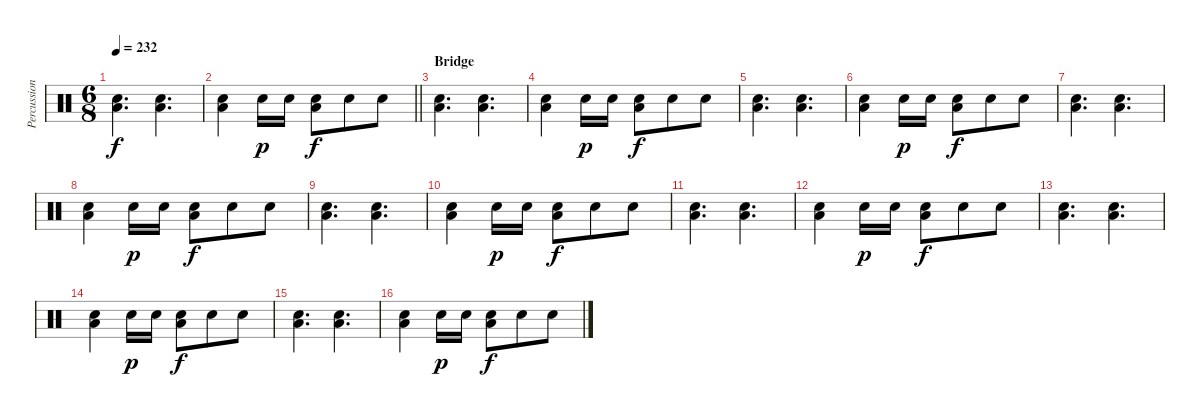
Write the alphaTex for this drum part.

\track ("Percussion" "Percussion") {instrument percussion}
\staff {score}
\articulation defaults
\ts (6 8)
\tempo 232
\clef neutral
\ks c
("Electric Snare (hit)" "Low Floor Tom (hit)").4{d dy f} ("Electric Snare (hit)" "Low Floor Tom (hit)").4{d} |
\barLineRight lightlight
("Electric Snare (hit)" "Low Floor Tom (hit)").4 "Snare (hit) 2".16{dy p} "Snare (hit) 2".16 ("Electric Snare (hit)" "Low Floor Tom (hit)").8{dy f} "Electric Snare (hit)".8 "Electric Snare (hit)".8 |
\section ("" "Bridge")
("Electric Snare (hit)" "Low Floor Tom (hit)").4{d volume 10} ("Electric Snare (hit)" "Low Floor Tom (hit)").4{d} |
("Electric Snare (hit)" "Low Floor Tom (hit)").4 "Snare (hit) 2".16{dy p} "Snare (hit) 2".16 ("Electric Snare (hit)" "Low Floor Tom (hit)").8{dy f} "Electric Snare (hit)".8 "Electric Snare (hit)".8 |
("Electric Snare (hit)" "Low Floor Tom (hit)").4{d} ("Electric Snare (hit)" "Low Floor Tom (hit)").4{d} |
("Electric Snare (hit)" "Low Floor Tom (hit)").4 "Snare (hit) 2".16{dy p} "Snare (hit) 2".16 ("Electric Snare (hit)" "Low Floor Tom (hit)").8{dy f} "Electric Snare (hit)".8 "Electric Snare (hit)".8 |
("Electric Snare (hit)" "Low Floor Tom (hit)").4{d} ("Electric Snare (hit)" "Low Floor Tom (hit)").4{d} |
("Electric Snare (hit)" "Low Floor Tom (hit)").4 "Snare (hit) 2".16{dy p} "Snare (hit) 2".16 ("Electric Snare (hit)" "Low Floor Tom (hit)").8{dy f} "Electric Snare (hit)".8 "Electric Snare (hit)".8 |
("Electric Snare (hit)" "Low Floor Tom (hit)").4{d} ("Electric Snare (hit)" "Low Floor Tom (hit)").4{d} |
("Electric Snare (hit)" "Low Floor Tom (hit)").4 "Snare (hit) 2".16{dy p} "Snare (hit) 2".16 ("Electric Snare (hit)" "Low Floor Tom (hit)").8{dy f} "Electric Snare (hit)".8 "Electric Snare (hit)".8 |
("Electric Snare (hit)" "Low Floor Tom (hit)").4{d} ("Electric Snare (hit)" "Low Floor Tom (hit)").4{d} |
("Electric Snare (hit)" "Low Floor Tom (hit)").4 "Snare (hit) 2".16{dy p} "Snare (hit) 2".16 ("Electric Snare (hit)" "Low Floor Tom (hit)").8{dy f} "Electric Snare (hit)".8 "Electric Snare (hit)".8 |
("Electric Snare (hit)" "Low Floor Tom (hit)").4{d} ("Electric Snare (hit)" "Low Floor Tom (hit)").4{d} |
("Electric Snare (hit)" "Low Floor Tom (hit)").4 "Snare (hit) 2".16{dy p} "Snare (hit) 2".16 ("Electric Snare (hit)" "Low Floor Tom (hit)").8{dy f} "Electric Snare (hit)".8 "Electric Snare (hit)".8 |
("Electric Snare (hit)" "Low Floor Tom (hit)").4{d} ("Electric Snare (hit)" "Low Floor Tom (hit)").4{d} |
("Electric Snare (hit)" "Low Floor Tom (hit)").4 "Snare (hit) 2".16{dy p} "Snare (hit) 2".16 ("Electric Snare (hit)" "Low Floor Tom (hit)").8{dy f} "Electric Snare (hit)".8 "Electric Snare (hit)".8
